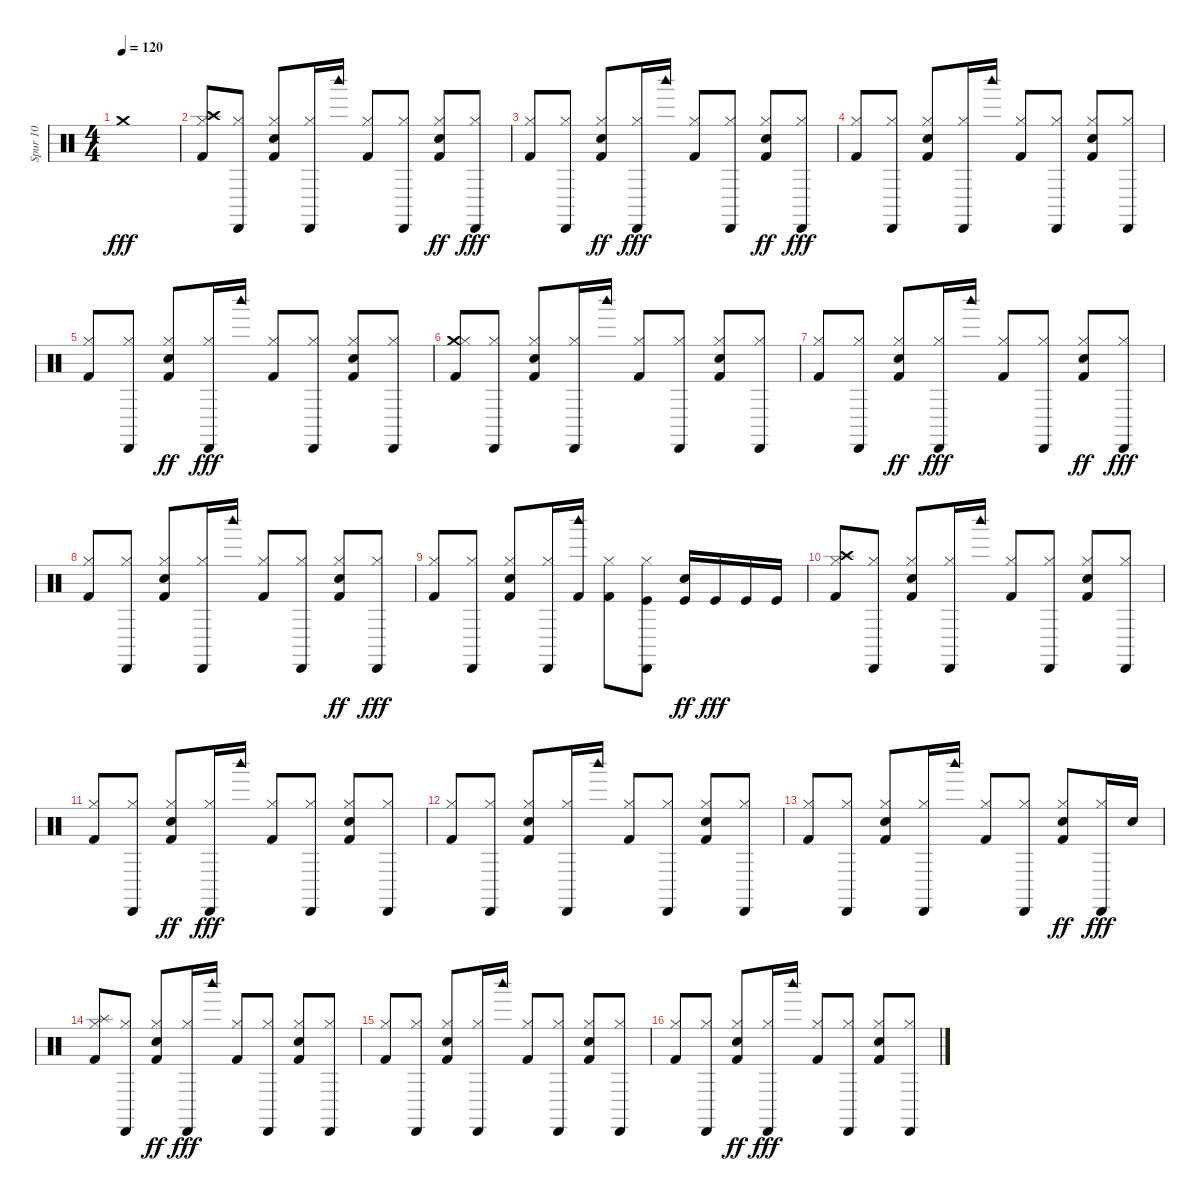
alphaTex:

\track ("Spur 10" "Spur 10") {instrument percussion}
\staff {score}
\articulation defaults
\ts (4 4)
\tempo 120
\clef neutral
\ks c "Crash medium (hit)".1{dy fff}
|
("Crash high (hit)" "Kick (hit) 2" "Hi-Hat (closed)").8 ("Cabasa (hit)" "Hi-Hat (closed)").8 ("Hand Clap (hit)" "Kick (hit) 2" "Hi-Hat (closed)").8 ("Hi-Hat (closed)" "Cabasa (hit)").16 "Woodblock high (hit)".16 ("Kick (hit) 2" "Hi-Hat (closed)").8 ("Cabasa (hit)" "Hi-Hat (closed)").8 ("Hi-Hat (closed)" "Kick (hit) 2" "Hand Clap (hit)").8{dy ff} ("Hi-Hat (closed)" "Cabasa (hit)").8{dy fff} |
("Hi-Hat (closed)" "Kick (hit) 2").8 ("Hi-Hat (closed)" "Cabasa (hit)").8 ("Hi-Hat (closed)" "Kick (hit) 2" "Hand Clap (hit)").8{dy ff} ("Cabasa (hit)" "Hi-Hat (closed)").16{dy fff} "Woodblock high (hit)".16 ("Kick (hit) 2" "Hi-Hat (closed)").8 ("Hi-Hat (closed)" "Cabasa (hit)").8 ("Hi-Hat (closed)" "Kick (hit) 2" "Hand Clap (hit)").8{dy ff} ("Cabasa (hit)" "Hi-Hat (closed)").8{dy fff} |
("Kick (hit) 2" "Hi-Hat (closed)").8 ("Cabasa (hit)" "Hi-Hat (closed)").8 ("Hand Clap (hit)" "Hi-Hat (closed)" "Kick (hit) 2").8 ("Hi-Hat (closed)" "Cabasa (hit)").16 "Woodblock high (hit)".16 ("Hi-Hat (closed)" "Kick (hit) 2").8 ("Cabasa (hit)" "Hi-Hat (closed)").8 ("Hand Clap (hit)" "Hi-Hat (closed)" "Kick (hit) 2").8 ("Cabasa (hit)" "Hi-Hat (closed)").8 |
("Hi-Hat (closed)" "Kick (hit) 2").8 ("Cabasa (hit)" "Hi-Hat (closed)").8 ("Hi-Hat (closed)" "Kick (hit) 2" "Hand Clap (hit)").8{dy ff} ("Hi-Hat (closed)" "Cabasa (hit)").16{dy fff} "Woodblock high (hit)".16 ("Kick (hit) 2" "Hi-Hat (closed)").8 ("Hi-Hat (closed)" "Cabasa (hit)").8 ("Kick (hit) 2" "Hand Clap (hit)" "Hi-Hat (closed)").8 ("Hi-Hat (closed)" "Cabasa (hit)").8 |
("Kick (hit) 2" "Crash medium (hit)" "Hi-Hat (closed)").8 ("Hi-Hat (closed)" "Cabasa (hit)").8 ("Hand Clap (hit)" "Hi-Hat (closed)" "Kick (hit) 2").8 ("Cabasa (hit)" "Hi-Hat (closed)").16 "Woodblock high (hit)".16 ("Hi-Hat (closed)" "Kick (hit) 2").8 ("Hi-Hat (closed)" "Cabasa (hit)").8 ("Hand Clap (hit)" "Hi-Hat (closed)" "Kick (hit) 2").8 ("Hi-Hat (closed)" "Cabasa (hit)").8 |
("Hi-Hat (closed)" "Kick (hit) 2").8 ("Hi-Hat (closed)" "Cabasa (hit)").8 ("Kick (hit) 2" "Hi-Hat (closed)" "Hand Clap (hit)").8{dy ff} ("Hi-Hat (closed)" "Cabasa (hit)").16{dy fff} "Woodblock high (hit)".16 ("Kick (hit) 2" "Hi-Hat (closed)").8 ("Cabasa (hit)" "Hi-Hat (closed)").8 ("Hi-Hat (closed)" "Kick (hit) 2" "Hand Clap (hit)").8{dy ff} ("Hi-Hat (closed)" "Cabasa (hit)").8{dy fff} |
("Hi-Hat (closed)" "Kick (hit) 2").8 ("Hi-Hat (closed)" "Cabasa (hit)").8 ("Hi-Hat (closed)" "Hand Clap (hit)" "Kick (hit) 2").8 ("Hi-Hat (closed)" "Cabasa (hit)").16 "Woodblock high (hit)".16 ("Kick (hit) 2" "Hi-Hat (closed)").8 ("Hi-Hat (closed)" "Cabasa (hit)").8 ("Hi-Hat (closed)" "Kick (hit) 2" "Hand Clap (hit)").8{dy ff} ("Hi-Hat (closed)" "Cabasa (hit)").8{dy fff} |
("Kick (hit) 2" "Hi-Hat (closed)").8 ("Hi-Hat (closed)" "Cabasa (hit)").8 ("Kick (hit) 2" "Hand Clap (hit)" "Hi-Hat (closed)").8 ("Cabasa (hit)" "Hi-Hat (closed)").16 ("Kick (hit) 2" "Woodblock high (hit)").16 ("Hi-Hat (closed)" "Kick (hit) 2").8 ("Hi-Hat (closed)" "Kick (hit)" "Cabasa (hit)").8 ("Kick (hit)" "Hand Clap (hit)").16{dy ff} "Kick (hit)".16{dy fff} "Kick (hit)".16 "Kick (hit)".16 |
("Crash high (hit)" "Hi-Hat (closed)" "Kick (hit) 2").8 ("Hi-Hat (closed)" "Cabasa (hit)").8 ("Hi-Hat (closed)" "Hand Clap (hit)" "Kick (hit) 2").8 ("Hi-Hat (closed)" "Cabasa (hit)").16 "Woodblock high (hit)".16 ("Kick (hit) 2" "Hi-Hat (closed)").8 ("Cabasa (hit)" "Hi-Hat (closed)").8 ("Hi-Hat (closed)" "Hand Clap (hit)" "Kick (hit) 2").8 ("Cabasa (hit)" "Hi-Hat (closed)").8 |
("Kick (hit) 2" "Hi-Hat (closed)").8 ("Hi-Hat (closed)" "Cabasa (hit)").8 ("Hi-Hat (closed)" "Kick (hit) 2" "Hand Clap (hit)").8{dy ff} ("Cabasa (hit)" "Hi-Hat (closed)").16{dy fff} "Woodblock high (hit)".16 ("Kick (hit) 2" "Hi-Hat (closed)").8 ("Hi-Hat (closed)" "Cabasa (hit)").8 ("Hand Clap (hit)" "Hi-Hat (closed)" "Kick (hit) 2").8 ("Hi-Hat (closed)" "Cabasa (hit)").8 |
("Hi-Hat (closed)" "Kick (hit) 2").8 ("Cabasa (hit)" "Hi-Hat (closed)").8 ("Hand Clap (hit)" "Kick (hit) 2" "Hi-Hat (closed)").8 ("Cabasa (hit)" "Hi-Hat (closed)").16 "Woodblock high (hit)".16 ("Kick (hit) 2" "Hi-Hat (closed)").8 ("Hi-Hat (closed)" "Cabasa (hit)").8 ("Hand Clap (hit)" "Kick (hit) 2" "Hi-Hat (closed)").8 ("Hi-Hat (closed)" "Cabasa (hit)").8 |
("Hi-Hat (closed)" "Kick (hit) 2").8 ("Cabasa (hit)" "Hi-Hat (closed)").8 ("Hand Clap (hit)" "Hi-Hat (closed)" "Kick (hit) 2").8 ("Hi-Hat (closed)" "Cabasa (hit)").16 "Woodblock high (hit)".16 ("Hi-Hat (closed)" "Kick (hit) 2").8 ("Hi-Hat (closed)" "Cabasa (hit)").8 ("Hi-Hat (closed)" "Kick (hit) 2" "Hand Clap (hit)").8{dy ff} ("Hi-Hat (closed)" "Cabasa (hit)").16{dy fff} "Hand Clap (hit)".16 |
("Hi-Hat (closed)" "Kick (hit) 2" "Splash (hit)").8 ("Cabasa (hit)" "Hi-Hat (closed)").8 ("Kick (hit) 2" "Hi-Hat (closed)" "Hand Clap (hit)").8{dy ff} ("Hi-Hat (closed)" "Cabasa (hit)").16{dy fff} "Woodblock high (hit)".16 ("Kick (hit) 2" "Hi-Hat (closed)").8 ("Cabasa (hit)" "Hi-Hat (closed)").8 ("Hi-Hat (closed)" "Hand Clap (hit)" "Kick (hit) 2").8 ("Hi-Hat (closed)" "Cabasa (hit)").8 |
("Hi-Hat (closed)" "Kick (hit) 2").8 ("Cabasa (hit)" "Hi-Hat (closed)").8 ("Hi-Hat (closed)" "Hand Clap (hit)" "Kick (hit) 2").8 ("Cabasa (hit)" "Hi-Hat (closed)").16 "Woodblock high (hit)".16 ("Kick (hit) 2" "Hi-Hat (closed)").8 ("Cabasa (hit)" "Hi-Hat (closed)").8 ("Kick (hit) 2" "Hand Clap (hit)" "Hi-Hat (closed)").8 ("Cabasa (hit)" "Hi-Hat (closed)").8 |
("Kick (hit) 2" "Hi-Hat (closed)").8 ("Hi-Hat (closed)" "Cabasa (hit)").8 ("Kick (hit) 2" "Hi-Hat (closed)" "Hand Clap (hit)").8{dy ff} ("Cabasa (hit)" "Hi-Hat (closed)").16{dy fff} "Woodblock high (hit)".16 ("Hi-Hat (closed)" "Kick (hit) 2").8 ("Hi-Hat (closed)" "Cabasa (hit)").8 ("Hand Clap (hit)" "Kick (hit) 2" "Hi-Hat (closed)").8 ("Cabasa (hit)" "Hi-Hat (closed)").8
